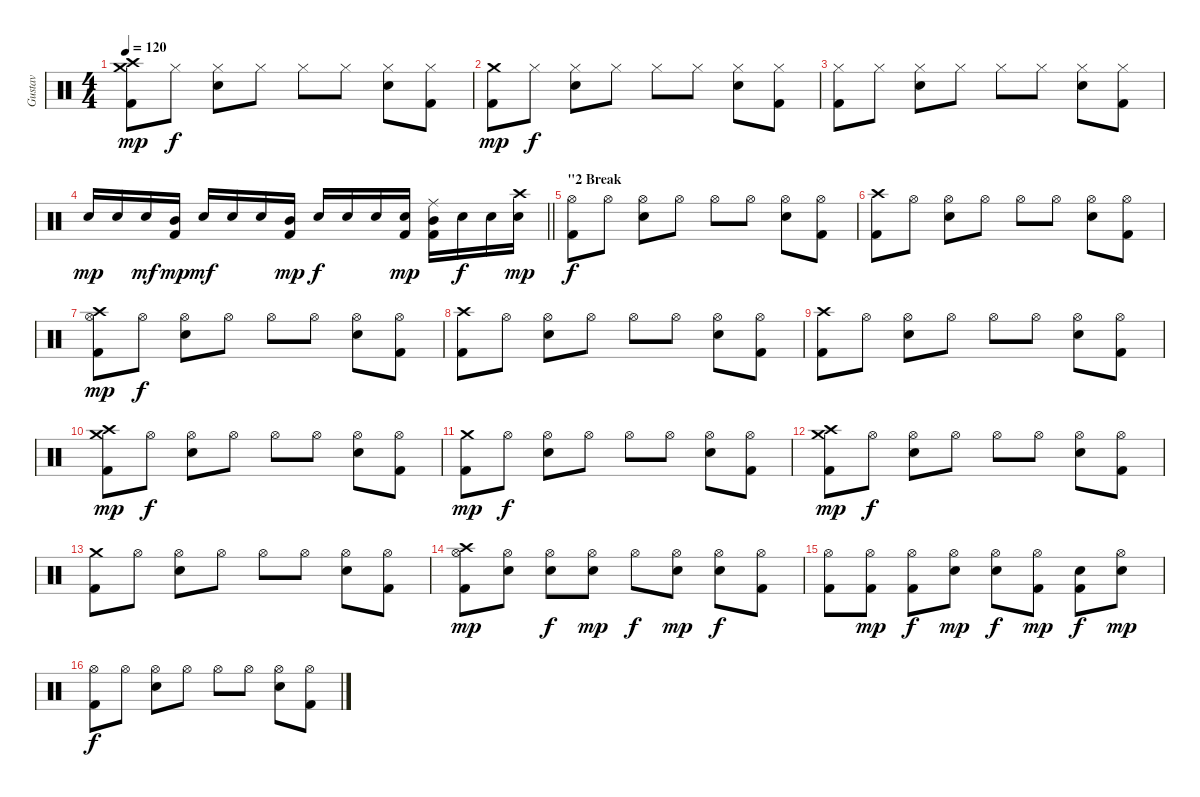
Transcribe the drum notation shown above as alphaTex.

\track ("Gustav" "Gustav") {instrument percussion}
\staff {score}
\articulation defaults
\ts (4 4)
\tempo 120
\clef neutral
\ks c
("Kick (hit) 2" "Crash medium (hit)" "Crash high (hit)").8{dy mp} "Hi-Hat (closed)".8{dy f} ("Hi-Hat (closed)" "Snare (hit) 2").8 "Hi-Hat (closed)".8 "Hi-Hat (closed)".8 "Hi-Hat (closed)".8 ("Snare (hit) 2" "Hi-Hat (closed)").8 ("Hi-Hat (closed)" "Kick (hit) 2").8 |
("Kick (hit) 2" "Crash medium (hit)").8{dy mp} "Hi-Hat (closed)".8{dy f} ("Hi-Hat (closed)" "Snare (hit) 2").8 "Hi-Hat (closed)".8 "Hi-Hat (closed)".8 "Hi-Hat (closed)".8 ("Snare (hit) 2" "Hi-Hat (closed)").8 ("Hi-Hat (closed)" "Kick (hit) 2").8 |
("Kick (hit) 2" "Hi-Hat (closed)").8 "Hi-Hat (closed)".8 ("Hi-Hat (closed)" "Snare (hit) 2").8 "Hi-Hat (closed)".8 "Hi-Hat (closed)".8 "Hi-Hat (closed)".8 ("Snare (hit) 2" "Hi-Hat (closed)").8 ("Hi-Hat (closed)" "Kick (hit) 2").8 |
\barLineRight lightlight "Snare (hit) 2".16{dy mp} "Snare (hit) 2".16 "Snare (hit) 2".16{dy mf}
("Mid Tom (hit)" "Kick (hit) 2").16{dy mp} "Snare (hit) 2".16{dy mf} "Snare (hit) 2".16 "Snare (hit) 2".16 ("Mid Tom (hit)" "Kick (hit) 2").16{dy mp} "Snare (hit) 2".16{dy f} "Snare (hit) 2".16 "Snare (hit) 2".16 ("Snare (hit) 2" "Kick (hit) 2").16{dy mp} ("Ride (middle)" "Mid Tom (hit)" "Kick (hit) 2").16 "Snare (hit) 2".16{dy f} "Snare (hit) 2".16 ("Crash high (hit)" "Snare (hit) 2").16{dy mp} |
\section ("" "\"2 Break")
("Kick (hit) 2" "Hi-Hat (open)").8{dy f} "Hi-Hat (open)".8 ("Hi-Hat (open)" "Snare (hit) 2").8 "Hi-Hat (open)".8 "Hi-Hat (open)".8 "Hi-Hat (open)".8 ("Snare (hit) 2" "Hi-Hat (open)").8 ("Hi-Hat (open)" "Kick (hit) 2").8 |
("Kick (hit) 2" "Crash high (hit)").8 "Hi-Hat (open)".8 ("Hi-Hat (open)" "Snare (hit) 2").8 "Hi-Hat (open)".8 "Hi-Hat (open)".8 "Hi-Hat (open)".8 ("Snare (hit) 2" "Hi-Hat (open)").8 ("Hi-Hat (open)" "Kick (hit) 2").8 |
("Kick (hit) 2" "Crash high (hit)" "Hi-Hat (open)").8{dy mp} "Hi-Hat (open)".8{dy f} ("Hi-Hat (open)" "Snare (hit) 2").8 "Hi-Hat (open)".8 "Hi-Hat (open)".8 "Hi-Hat (open)".8 ("Snare (hit) 2" "Hi-Hat (open)").8 ("Hi-Hat (open)" "Kick (hit) 2").8 |
("Kick (hit) 2" "Crash high (hit)").8 "Hi-Hat (open)".8 ("Hi-Hat (open)" "Snare (hit) 2").8 "Hi-Hat (open)".8 "Hi-Hat (open)".8 "Hi-Hat (open)".8 ("Snare (hit) 2" "Hi-Hat (open)").8 ("Hi-Hat (open)" "Kick (hit) 2").8 |
("Kick (hit) 2" "Crash high (hit)").8 "Hi-Hat (open)".8 ("Hi-Hat (open)" "Snare (hit) 2").8 "Hi-Hat (open)".8 "Hi-Hat (open)".8 "Hi-Hat (open)".8 ("Snare (hit) 2" "Hi-Hat (open)").8 ("Hi-Hat (open)" "Kick (hit) 2").8 |
("Kick (hit) 2" "Crash medium (hit)" "Crash high (hit)").8{dy mp} "Hi-Hat (open)".8{dy f} ("Hi-Hat (open)" "Snare (hit) 2").8 "Hi-Hat (open)".8 "Hi-Hat (open)".8 "Hi-Hat (open)".8 ("Snare (hit) 2" "Hi-Hat (open)").8 ("Hi-Hat (open)" "Kick (hit) 2").8 |
("Kick (hit) 2" "Crash medium (hit)").8{dy mp} "Hi-Hat (open)".8{dy f} ("Hi-Hat (open)" "Snare (hit) 2").8 "Hi-Hat (open)".8 "Hi-Hat (open)".8 "Hi-Hat (open)".8 ("Snare (hit) 2" "Hi-Hat (open)").8 ("Hi-Hat (open)" "Kick (hit) 2").8 |
("Kick (hit) 2" "Crash high (hit)" "Crash medium (hit)").8{dy mp} "Hi-Hat (open)".8{dy f} ("Hi-Hat (open)" "Snare (hit) 2").8 "Hi-Hat (open)".8 "Hi-Hat (open)".8 "Hi-Hat (open)".8 ("Snare (hit) 2" "Hi-Hat (open)").8 ("Hi-Hat (open)" "Kick (hit) 2").8 |
("Kick (hit) 2" "Crash medium (hit)").8 "Hi-Hat (open)".8 ("Hi-Hat (open)" "Snare (hit) 2").8 "Hi-Hat (open)".8 "Hi-Hat (open)".8 "Hi-Hat (open)".8 ("Snare (hit) 2" "Hi-Hat (open)").8 ("Hi-Hat (open)" "Kick (hit) 2").8 |
("Kick (hit) 2" "Hi-Hat (open)" "Crash high (hit)").8{dy mp} ("Hi-Hat (open)" "Electric Snare (hit)").8 ("Hi-Hat (open)" "Snare (hit) 2").8{dy f} ("Hi-Hat (open)" "Electric Snare (hit)").8{dy mp} "Hi-Hat (open)".8{dy f} ("Hi-Hat (open)" "Electric Snare (hit)").8{dy mp} ("Snare (hit) 2" "Hi-Hat (open)").8{dy f} ("Hi-Hat (open)" "Kick (hit) 2").8 |
("Hi-Hat (open)" "Kick (hit) 2").8 ("Hi-Hat (open)" "Kick (hit) 2").8{dy mp} ("Hi-Hat (open)" "Kick (hit) 2").8{dy f} ("Hi-Hat (open)" "Electric Snare (hit)").8{dy mp} ("Hi-Hat (open)" "Snare (hit) 2").8{dy f} ("Hi-Hat (open)" "Kick (hit) 2").8{dy mp} ("Kick (hit) 2" "Snare (hit) 2").8{dy f} ("Hi-Hat (open)" "Electric Snare (hit)").8{dy mp} |
("Kick (hit) 2" "Hi-Hat (open)").8{dy f} "Hi-Hat (open)".8 ("Hi-Hat (open)" "Snare (hit) 2").8 "Hi-Hat (open)".8 "Hi-Hat (open)".8 "Hi-Hat (open)".8 ("Snare (hit) 2" "Hi-Hat (open)").8 ("Hi-Hat (open)" "Kick (hit) 2").8
